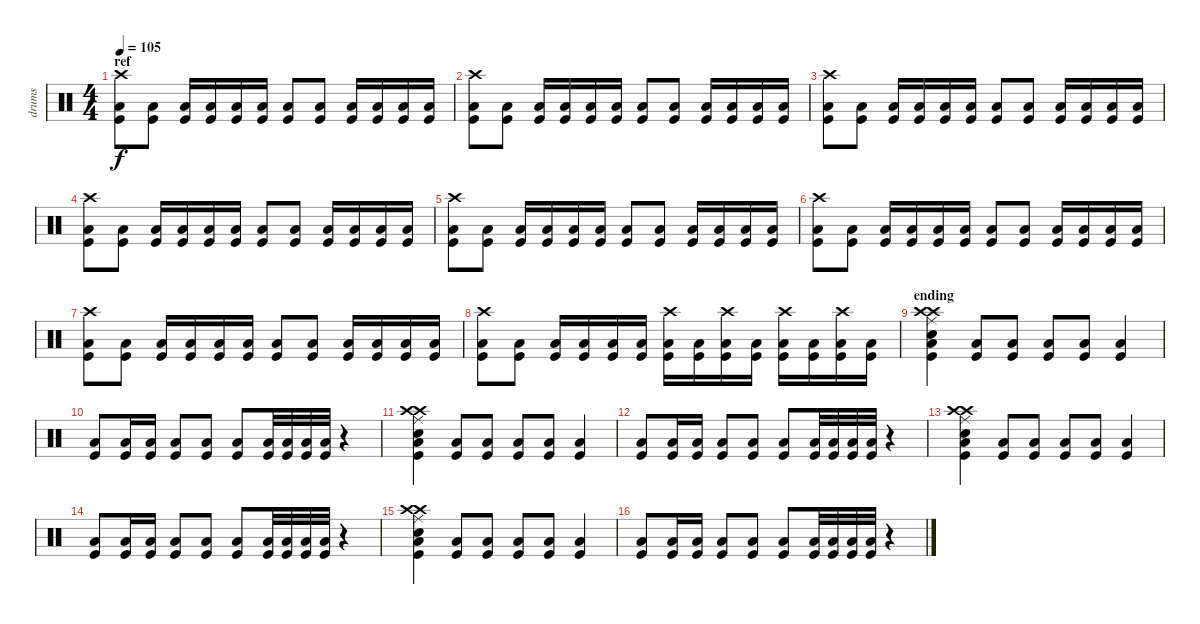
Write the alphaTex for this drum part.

\track ("drums" "drums") {instrument percussion}
\staff {score}
\articulation defaults
\ts (4 4)
\section ("" "ref")
\tempo 105
\clef neutral
\ks c
("Crash high (hit)" "Low Floor Tom (hit)" "Kick (hit)").8{dy f} ("Low Floor Tom (hit)" "Kick (hit)").8 ("Low Floor Tom (hit)" "Kick (hit)").16 ("Low Floor Tom (hit)" "Kick (hit)").16 ("Low Floor Tom (hit)" "Kick (hit)").16 ("Low Floor Tom (hit)" "Kick (hit)").16 ("Low Floor Tom (hit)" "Kick (hit)").8 ("Low Floor Tom (hit)" "Kick (hit)").8 ("Low Floor Tom (hit)" "Kick (hit)").16 ("Low Floor Tom (hit)" "Kick (hit)").16 ("Low Floor Tom (hit)" "Kick (hit)").16 ("Low Floor Tom (hit)" "Kick (hit)").16 |
("Crash high (hit)" "Low Floor Tom (hit)" "Kick (hit)").8 ("Low Floor Tom (hit)" "Kick (hit)").8 ("Low Floor Tom (hit)" "Kick (hit)").16 ("Low Floor Tom (hit)" "Kick (hit)").16 ("Low Floor Tom (hit)" "Kick (hit)").16 ("Low Floor Tom (hit)" "Kick (hit)").16 ("Low Floor Tom (hit)" "Kick (hit)").8 ("Low Floor Tom (hit)" "Kick (hit)").8 ("Low Floor Tom (hit)" "Kick (hit)").16 ("Low Floor Tom (hit)" "Kick (hit)").16 ("Low Floor Tom (hit)" "Kick (hit)").16 ("Low Floor Tom (hit)" "Kick (hit)").16 |
("Crash high (hit)" "Low Floor Tom (hit)" "Kick (hit)").8 ("Low Floor Tom (hit)" "Kick (hit)").8 ("Low Floor Tom (hit)" "Kick (hit)").16 ("Low Floor Tom (hit)" "Kick (hit)").16 ("Low Floor Tom (hit)" "Kick (hit)").16 ("Low Floor Tom (hit)" "Kick (hit)").16 ("Low Floor Tom (hit)" "Kick (hit)").8 ("Low Floor Tom (hit)" "Kick (hit)").8 ("Low Floor Tom (hit)" "Kick (hit)").16 ("Low Floor Tom (hit)" "Kick (hit)").16 ("Low Floor Tom (hit)" "Kick (hit)").16 ("Low Floor Tom (hit)" "Kick (hit)").16 |
("Crash high (hit)" "Low Floor Tom (hit)" "Kick (hit)").8 ("Low Floor Tom (hit)" "Kick (hit)").8 ("Low Floor Tom (hit)" "Kick (hit)").16 ("Low Floor Tom (hit)" "Kick (hit)").16 ("Low Floor Tom (hit)" "Kick (hit)").16 ("Low Floor Tom (hit)" "Kick (hit)").16 ("Low Floor Tom (hit)" "Kick (hit)").8 ("Low Floor Tom (hit)" "Kick (hit)").8 ("Low Floor Tom (hit)" "Kick (hit)").16 ("Low Floor Tom (hit)" "Kick (hit)").16 ("Low Floor Tom (hit)" "Kick (hit)").16 ("Low Floor Tom (hit)" "Kick (hit)").16 |
("Crash high (hit)" "Low Floor Tom (hit)" "Kick (hit)").8 ("Low Floor Tom (hit)" "Kick (hit)").8 ("Low Floor Tom (hit)" "Kick (hit)").16 ("Low Floor Tom (hit)" "Kick (hit)").16 ("Low Floor Tom (hit)" "Kick (hit)").16 ("Low Floor Tom (hit)" "Kick (hit)").16 ("Low Floor Tom (hit)" "Kick (hit)").8 ("Low Floor Tom (hit)" "Kick (hit)").8 ("Low Floor Tom (hit)" "Kick (hit)").16 ("Low Floor Tom (hit)" "Kick (hit)").16 ("Low Floor Tom (hit)" "Kick (hit)").16 ("Low Floor Tom (hit)" "Kick (hit)").16 |
("Crash high (hit)" "Low Floor Tom (hit)" "Kick (hit)").8 ("Low Floor Tom (hit)" "Kick (hit)").8 ("Low Floor Tom (hit)" "Kick (hit)").16 ("Low Floor Tom (hit)" "Kick (hit)").16 ("Low Floor Tom (hit)" "Kick (hit)").16 ("Low Floor Tom (hit)" "Kick (hit)").16 ("Low Floor Tom (hit)" "Kick (hit)").8 ("Low Floor Tom (hit)" "Kick (hit)").8 ("Low Floor Tom (hit)" "Kick (hit)").16 ("Low Floor Tom (hit)" "Kick (hit)").16 ("Low Floor Tom (hit)" "Kick (hit)").16 ("Low Floor Tom (hit)" "Kick (hit)").16 |
("Crash high (hit)" "Low Floor Tom (hit)" "Kick (hit)").8 ("Low Floor Tom (hit)" "Kick (hit)").8 ("Low Floor Tom (hit)" "Kick (hit)").16 ("Low Floor Tom (hit)" "Kick (hit)").16 ("Low Floor Tom (hit)" "Kick (hit)").16 ("Low Floor Tom (hit)" "Kick (hit)").16 ("Low Floor Tom (hit)" "Kick (hit)").8 ("Low Floor Tom (hit)" "Kick (hit)").8 ("Low Floor Tom (hit)" "Kick (hit)").16 ("Low Floor Tom (hit)" "Kick (hit)").16 ("Low Floor Tom (hit)" "Kick (hit)").16 ("Low Floor Tom (hit)" "Kick (hit)").16 |
("Crash high (hit)" "Low Floor Tom (hit)" "Kick (hit)").8 ("Low Floor Tom (hit)" "Kick (hit)").8 ("Low Floor Tom (hit)" "Kick (hit)").16 ("Low Floor Tom (hit)" "Kick (hit)").16 ("Low Floor Tom (hit)" "Kick (hit)").16 ("Low Floor Tom (hit)" "Kick (hit)").16 ("Crash high (hit)" "Low Floor Tom (hit)" "Kick (hit)").16 ("Low Floor Tom (hit)" "Kick (hit)").16 ("Crash high (hit)" "Low Floor Tom (hit)" "Kick (hit)").16 ("Low Floor Tom (hit)" "Kick (hit)").16 ("Crash high (hit)" "Low Floor Tom (hit)" "Kick (hit)").16 ("Low Floor Tom (hit)" "Kick (hit)").16 ("Crash high (hit)" "Low Floor Tom (hit)" "Kick (hit)").16 ("Low Floor Tom (hit)" "Kick (hit)").16 |
\section ("" "ending")
("Ride (middle)" "Crash high (hit)" "Crash high (hit)" "Snare (hit) 2" "Low Floor Tom (hit)" "Kick (hit)").4 ("Low Floor Tom (hit)" "Kick (hit)").8 ("Low Floor Tom (hit)" "Kick (hit)").8 ("Low Floor Tom (hit)" "Kick (hit)").8 ("Low Floor Tom (hit)" "Kick (hit)").8 ("Low Floor Tom (hit)" "Kick (hit)").4 |
("Low Floor Tom (hit)" "Kick (hit)").8 ("Low Floor Tom (hit)" "Kick (hit)").16 ("Low Floor Tom (hit)" "Kick (hit)").16 ("Low Floor Tom (hit)" "Kick (hit)").8 ("Low Floor Tom (hit)" "Kick (hit)").8 ("Low Floor Tom (hit)" "Kick (hit)").8 ("Low Floor Tom (hit)" "Kick (hit)").32 ("Low Floor Tom (hit)" "Kick (hit)").32 ("Low Floor Tom (hit)" "Kick (hit)").32 ("Low Floor Tom (hit)" "Kick (hit)").32 r.4 |
("Ride (middle)" "Crash high (hit)" "Crash high (hit)" "Snare (hit) 2" "Low Floor Tom (hit)" "Kick (hit)").4 ("Low Floor Tom (hit)" "Kick (hit)").8 ("Low Floor Tom (hit)" "Kick (hit)").8 ("Low Floor Tom (hit)" "Kick (hit)").8 ("Low Floor Tom (hit)" "Kick (hit)").8 ("Low Floor Tom (hit)" "Kick (hit)").4 |
("Low Floor Tom (hit)" "Kick (hit)").8 ("Low Floor Tom (hit)" "Kick (hit)").16 ("Low Floor Tom (hit)" "Kick (hit)").16 ("Low Floor Tom (hit)" "Kick (hit)").8 ("Low Floor Tom (hit)" "Kick (hit)").8 ("Low Floor Tom (hit)" "Kick (hit)").8 ("Low Floor Tom (hit)" "Kick (hit)").32 ("Low Floor Tom (hit)" "Kick (hit)").32 ("Low Floor Tom (hit)" "Kick (hit)").32 ("Low Floor Tom (hit)" "Kick (hit)").32 r.4 |
("Ride (middle)" "Crash high (hit)" "Crash high (hit)" "Snare (hit) 2" "Low Floor Tom (hit)" "Kick (hit)").4 ("Low Floor Tom (hit)" "Kick (hit)").8 ("Low Floor Tom (hit)" "Kick (hit)").8 ("Low Floor Tom (hit)" "Kick (hit)").8 ("Low Floor Tom (hit)" "Kick (hit)").8 ("Low Floor Tom (hit)" "Kick (hit)").4 |
("Low Floor Tom (hit)" "Kick (hit)").8 ("Low Floor Tom (hit)" "Kick (hit)").16 ("Low Floor Tom (hit)" "Kick (hit)").16 ("Low Floor Tom (hit)" "Kick (hit)").8 ("Low Floor Tom (hit)" "Kick (hit)").8 ("Low Floor Tom (hit)" "Kick (hit)").8 ("Low Floor Tom (hit)" "Kick (hit)").32 ("Low Floor Tom (hit)" "Kick (hit)").32 ("Low Floor Tom (hit)" "Kick (hit)").32 ("Low Floor Tom (hit)" "Kick (hit)").32 r.4 |
("Ride (middle)" "Crash high (hit)" "Crash high (hit)" "Snare (hit) 2" "Low Floor Tom (hit)" "Kick (hit)").4 ("Low Floor Tom (hit)" "Kick (hit)").8 ("Low Floor Tom (hit)" "Kick (hit)").8 ("Low Floor Tom (hit)" "Kick (hit)").8 ("Low Floor Tom (hit)" "Kick (hit)").8 ("Low Floor Tom (hit)" "Kick (hit)").4 |
("Low Floor Tom (hit)" "Kick (hit)").8 ("Low Floor Tom (hit)" "Kick (hit)").16 ("Low Floor Tom (hit)" "Kick (hit)").16 ("Low Floor Tom (hit)" "Kick (hit)").8 ("Low Floor Tom (hit)" "Kick (hit)").8 ("Low Floor Tom (hit)" "Kick (hit)").8 ("Low Floor Tom (hit)" "Kick (hit)").32 ("Low Floor Tom (hit)" "Kick (hit)").32 ("Low Floor Tom (hit)" "Kick (hit)").32 ("Low Floor Tom (hit)" "Kick (hit)").32 r.4
